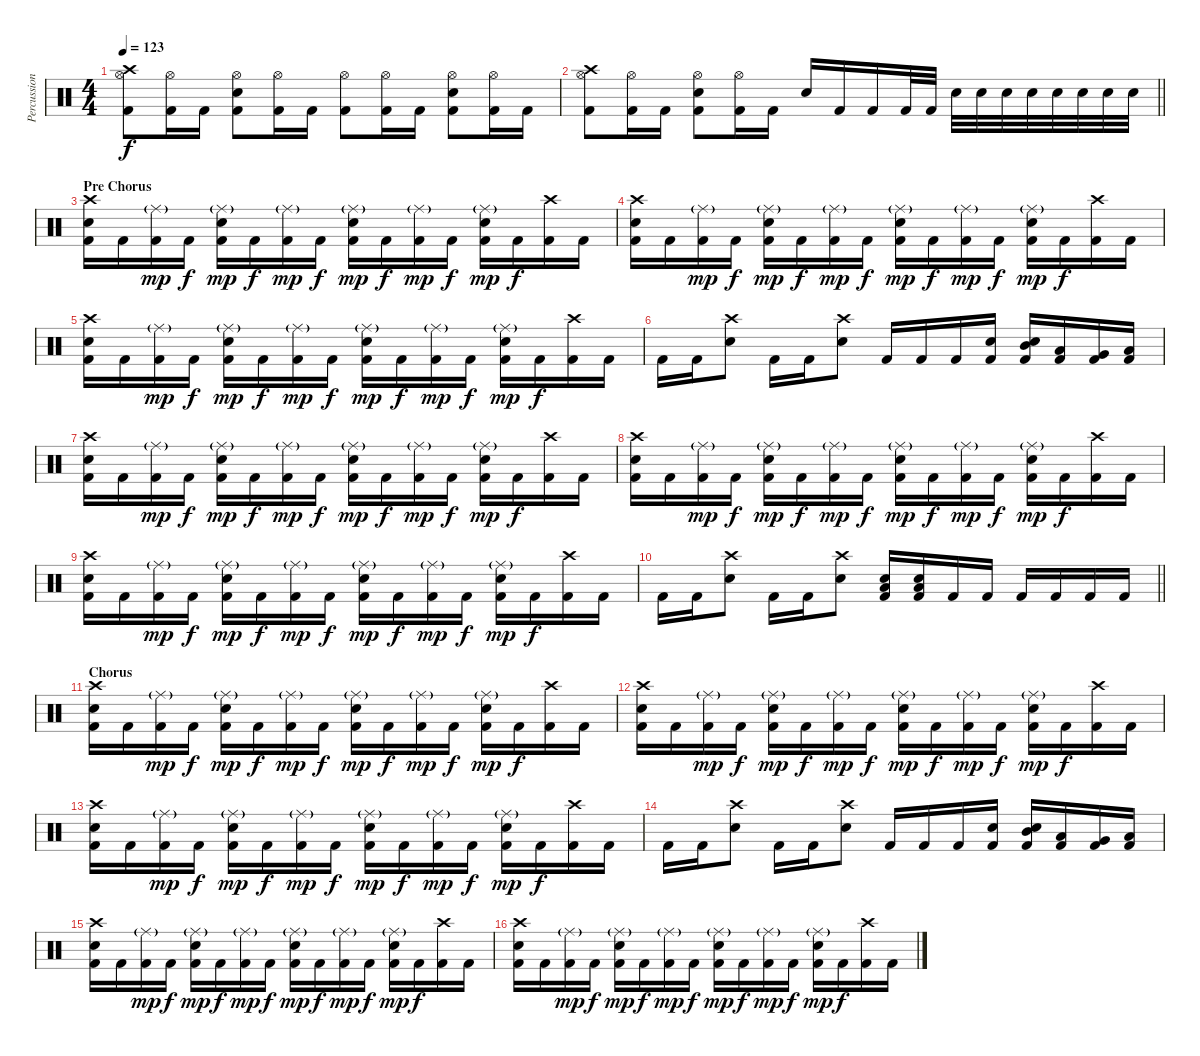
\track ("Percussion" "Percussion") {instrument percussion}
\staff {score}
\articulation defaults
\ts (4 4)
\tempo 123
\clef neutral
\ks c
("Hi-Hat (open)" "Kick (hit) 2" "Crash high (hit)").8{dy f} ("Hi-Hat (open)" "Kick (hit) 2").16 "Kick (hit) 2".16 ("Hi-Hat (open)" "Snare (hit) 2" "Kick (hit) 2").8 ("Hi-Hat (open)" "Kick (hit) 2").16 "Kick (hit) 2".16 ("Hi-Hat (open)" "Kick (hit) 2").8 ("Hi-Hat (open)" "Kick (hit) 2").16 "Kick (hit) 2".16 ("Hi-Hat (open)" "Snare (hit) 2" "Kick (hit) 2").8 ("Hi-Hat (open)" "Kick (hit) 2").16 "Kick (hit) 2".16 |
\barLineRight lightlight
("Hi-Hat (open)" "Kick (hit) 2" "Crash high (hit)").8 ("Hi-Hat (open)" "Kick (hit) 2").16 "Kick (hit) 2".16 ("Hi-Hat (open)" "Snare (hit) 2" "Kick (hit) 2").8 ("Hi-Hat (open)" "Kick (hit) 2").16 "Kick (hit) 2".16 "Snare (hit) 2".16 "Kick (hit) 2".16 "Kick (hit) 2".16 "Kick (hit) 2".32 "Kick (hit) 2".32 "Snare (hit) 2".32 "Snare (hit) 2".32 "Snare (hit) 2".32 "Snare (hit) 2".32 "Snare (hit) 2".32 "Snare (hit) 2".32 "Snare (hit) 2".32 "Snare (hit) 2".32 |
\section ("" "Pre Chorus")
("Snare (hit) 2" "Kick (hit) 2" "Crash high (hit)").16 "Kick (hit) 2".16 ("Ride (middle)"{g} "Kick (hit) 2").16{dy mp} "Kick (hit) 2".16{dy f} ("Ride (middle)"{g} "Snare (hit) 2" "Kick (hit) 2").16{dy mp} "Kick (hit) 2".16{dy f} ("Ride (middle)"{g} "Kick (hit) 2").16{dy mp} "Kick (hit) 2".16{dy f} ("Ride (middle)"{g} "Snare (hit) 2" "Kick (hit) 2").16{dy mp} "Kick (hit) 2".16{dy f} ("Ride (middle)"{g} "Kick (hit) 2").16{dy mp} "Kick (hit) 2".16{dy f} ("Ride (middle)"{g} "Snare (hit) 2" "Kick (hit) 2").16{dy mp} "Kick (hit) 2".16{dy f} ("Kick (hit) 2" "Crash high (hit)").16 "Kick (hit) 2".16 |
("Snare (hit) 2" "Kick (hit) 2" "Crash high (hit)").16 "Kick (hit) 2".16 ("Ride (middle)"{g} "Kick (hit) 2").16{dy mp} "Kick (hit) 2".16{dy f} ("Ride (middle)"{g} "Snare (hit) 2" "Kick (hit) 2").16{dy mp} "Kick (hit) 2".16{dy f} ("Ride (middle)"{g} "Kick (hit) 2").16{dy mp} "Kick (hit) 2".16{dy f} ("Ride (middle)"{g} "Snare (hit) 2" "Kick (hit) 2").16{dy mp} "Kick (hit) 2".16{dy f} ("Ride (middle)"{g} "Kick (hit) 2").16{dy mp} "Kick (hit) 2".16{dy f} ("Ride (middle)"{g} "Snare (hit) 2" "Kick (hit) 2").16{dy mp} "Kick (hit) 2".16{dy f} ("Kick (hit) 2" "Crash high (hit)").16 "Kick (hit) 2".16 |
("Snare (hit) 2" "Kick (hit) 2" "Crash high (hit)").16 "Kick (hit) 2".16 ("Ride (middle)"{g} "Kick (hit) 2").16{dy mp} "Kick (hit) 2".16{dy f} ("Ride (middle)"{g} "Snare (hit) 2" "Kick (hit) 2").16{dy mp} "Kick (hit) 2".16{dy f} ("Ride (middle)"{g} "Kick (hit) 2").16{dy mp} "Kick (hit) 2".16{dy f} ("Ride (middle)"{g} "Snare (hit) 2" "Kick (hit) 2").16{dy mp} "Kick (hit) 2".16{dy f} ("Ride (middle)"{g} "Kick (hit) 2").16{dy mp} "Kick (hit) 2".16{dy f} ("Ride (middle)"{g} "Snare (hit) 2" "Kick (hit) 2").16{dy mp} "Kick (hit) 2".16{dy f} ("Kick (hit) 2" "Crash high (hit)").16 "Kick (hit) 2".16 |
"Kick (hit) 2".16 "Kick (hit) 2".16 ("Snare (hit) 2" "Crash high (hit)").8 "Kick (hit) 2".16 "Kick (hit) 2".16 ("Snare (hit) 2" "Crash high (hit)").8 "Kick (hit) 2".16 "Kick (hit) 2".16 "Kick (hit) 2".16 ("Snare (hit) 2" "Kick (hit) 2").16 ("Mid Tom (hit)" "Snare (hit) 2" "Kick (hit) 2").16 ("Low Tom (hit)" "Kick (hit) 2").16 ("Very Low Tom (hit)" "Kick (hit) 2").16 ("Low Floor Tom (hit)" "Kick (hit) 2").16 |
("Snare (hit) 2" "Kick (hit) 2" "Crash high (hit)").16 "Kick (hit) 2".16 ("Ride (middle)"{g} "Kick (hit) 2").16{dy mp} "Kick (hit) 2".16{dy f} ("Ride (middle)"{g} "Snare (hit) 2" "Kick (hit) 2").16{dy mp} "Kick (hit) 2".16{dy f} ("Ride (middle)"{g} "Kick (hit) 2").16{dy mp} "Kick (hit) 2".16{dy f} ("Ride (middle)"{g} "Snare (hit) 2" "Kick (hit) 2").16{dy mp} "Kick (hit) 2".16{dy f} ("Ride (middle)"{g} "Kick (hit) 2").16{dy mp} "Kick (hit) 2".16{dy f} ("Ride (middle)"{g} "Snare (hit) 2" "Kick (hit) 2").16{dy mp} "Kick (hit) 2".16{dy f} ("Kick (hit) 2" "Crash high (hit)").16 "Kick (hit) 2".16 |
("Snare (hit) 2" "Kick (hit) 2" "Crash high (hit)").16 "Kick (hit) 2".16 ("Ride (middle)"{g} "Kick (hit) 2").16{dy mp} "Kick (hit) 2".16{dy f} ("Ride (middle)"{g} "Snare (hit) 2" "Kick (hit) 2").16{dy mp} "Kick (hit) 2".16{dy f} ("Ride (middle)"{g} "Kick (hit) 2").16{dy mp} "Kick (hit) 2".16{dy f} ("Ride (middle)"{g} "Snare (hit) 2" "Kick (hit) 2").16{dy mp} "Kick (hit) 2".16{dy f} ("Ride (middle)"{g} "Kick (hit) 2").16{dy mp} "Kick (hit) 2".16{dy f} ("Ride (middle)"{g} "Snare (hit) 2" "Kick (hit) 2").16{dy mp} "Kick (hit) 2".16{dy f} ("Kick (hit) 2" "Crash high (hit)").16 "Kick (hit) 2".16 |
("Snare (hit) 2" "Kick (hit) 2" "Crash high (hit)").16 "Kick (hit) 2".16 ("Ride (middle)"{g} "Kick (hit) 2").16{dy mp} "Kick (hit) 2".16{dy f} ("Ride (middle)"{g} "Snare (hit) 2" "Kick (hit) 2").16{dy mp} "Kick (hit) 2".16{dy f} ("Ride (middle)"{g} "Kick (hit) 2").16{dy mp} "Kick (hit) 2".16{dy f} ("Ride (middle)"{g} "Snare (hit) 2" "Kick (hit) 2").16{dy mp} "Kick (hit) 2".16{dy f} ("Ride (middle)"{g} "Kick (hit) 2").16{dy mp} "Kick (hit) 2".16{dy f} ("Ride (middle)"{g} "Snare (hit) 2" "Kick (hit) 2").16{dy mp} "Kick (hit) 2".16{dy f} ("Kick (hit) 2" "Crash high (hit)").16 "Kick (hit) 2".16 |
\barLineRight lightlight "Kick (hit) 2".16 "Kick (hit) 2".16
("Snare (hit) 2" "Crash high (hit)").8 "Kick (hit) 2".16 "Kick (hit) 2".16 ("Snare (hit) 2" "Crash high (hit)").8 ("Low Floor Tom (hit)" "Snare (hit) 2" "Kick (hit) 2").16 ("Low Floor Tom (hit)" "Snare (hit) 2" "Kick (hit) 2").16 "Kick (hit) 2".16 "Kick (hit) 2".16 "Kick (hit) 2".16 "Kick (hit) 2".16 "Kick (hit) 2".16 "Kick (hit) 2".16 |
\section ("" "Chorus")
("Snare (hit) 2" "Kick (hit) 2" "Crash high (hit)").16 "Kick (hit) 2".16 ("Ride (middle)"{g} "Kick (hit) 2").16{dy mp} "Kick (hit) 2".16{dy f} ("Ride (middle)"{g} "Snare (hit) 2" "Kick (hit) 2").16{dy mp} "Kick (hit) 2".16{dy f} ("Ride (middle)"{g} "Kick (hit) 2").16{dy mp} "Kick (hit) 2".16{dy f} ("Ride (middle)"{g} "Snare (hit) 2" "Kick (hit) 2").16{dy mp} "Kick (hit) 2".16{dy f} ("Ride (middle)"{g} "Kick (hit) 2").16{dy mp} "Kick (hit) 2".16{dy f} ("Ride (middle)"{g} "Snare (hit) 2" "Kick (hit) 2").16{dy mp} "Kick (hit) 2".16{dy f} ("Kick (hit) 2" "Crash high (hit)").16 "Kick (hit) 2".16 |
("Snare (hit) 2" "Kick (hit) 2" "Crash high (hit)").16 "Kick (hit) 2".16 ("Ride (middle)"{g} "Kick (hit) 2").16{dy mp} "Kick (hit) 2".16{dy f} ("Ride (middle)"{g} "Snare (hit) 2" "Kick (hit) 2").16{dy mp} "Kick (hit) 2".16{dy f} ("Ride (middle)"{g} "Kick (hit) 2").16{dy mp} "Kick (hit) 2".16{dy f} ("Ride (middle)"{g} "Snare (hit) 2" "Kick (hit) 2").16{dy mp} "Kick (hit) 2".16{dy f} ("Ride (middle)"{g} "Kick (hit) 2").16{dy mp} "Kick (hit) 2".16{dy f} ("Ride (middle)"{g} "Snare (hit) 2" "Kick (hit) 2").16{dy mp} "Kick (hit) 2".16{dy f} ("Kick (hit) 2" "Crash high (hit)").16 "Kick (hit) 2".16 |
("Snare (hit) 2" "Kick (hit) 2" "Crash high (hit)").16 "Kick (hit) 2".16 ("Ride (middle)"{g} "Kick (hit) 2").16{dy mp} "Kick (hit) 2".16{dy f} ("Ride (middle)"{g} "Snare (hit) 2" "Kick (hit) 2").16{dy mp} "Kick (hit) 2".16{dy f} ("Ride (middle)"{g} "Kick (hit) 2").16{dy mp} "Kick (hit) 2".16{dy f} ("Ride (middle)"{g} "Snare (hit) 2" "Kick (hit) 2").16{dy mp} "Kick (hit) 2".16{dy f} ("Ride (middle)"{g} "Kick (hit) 2").16{dy mp} "Kick (hit) 2".16{dy f} ("Ride (middle)"{g} "Snare (hit) 2" "Kick (hit) 2").16{dy mp} "Kick (hit) 2".16{dy f} ("Kick (hit) 2" "Crash high (hit)").16 "Kick (hit) 2".16 |
"Kick (hit) 2".16 "Kick (hit) 2".16 ("Snare (hit) 2" "Crash high (hit)").8 "Kick (hit) 2".16 "Kick (hit) 2".16 ("Snare (hit) 2" "Crash high (hit)").8 "Kick (hit) 2".16 "Kick (hit) 2".16 "Kick (hit) 2".16 ("Snare (hit) 2" "Kick (hit) 2").16 ("Mid Tom (hit)" "Snare (hit) 2" "Kick (hit) 2").16 ("Low Tom (hit)" "Kick (hit) 2").16 ("Very Low Tom (hit)" "Kick (hit) 2").16 ("Low Floor Tom (hit)" "Kick (hit) 2").16 |
("Snare (hit) 2" "Kick (hit) 2" "Crash high (hit)").16 "Kick (hit) 2".16 ("Ride (middle)"{g} "Kick (hit) 2").16{dy mp} "Kick (hit) 2".16{dy f} ("Ride (middle)"{g} "Snare (hit) 2" "Kick (hit) 2").16{dy mp} "Kick (hit) 2".16{dy f} ("Ride (middle)"{g} "Kick (hit) 2").16{dy mp} "Kick (hit) 2".16{dy f} ("Ride (middle)"{g} "Snare (hit) 2" "Kick (hit) 2").16{dy mp} "Kick (hit) 2".16{dy f} ("Ride (middle)"{g} "Kick (hit) 2").16{dy mp} "Kick (hit) 2".16{dy f} ("Ride (middle)"{g} "Snare (hit) 2" "Kick (hit) 2").16{dy mp} "Kick (hit) 2".16{dy f} ("Kick (hit) 2" "Crash high (hit)").16 "Kick (hit) 2".16 |
("Snare (hit) 2" "Kick (hit) 2" "Crash high (hit)").16 "Kick (hit) 2".16 ("Ride (middle)"{g} "Kick (hit) 2").16{dy mp} "Kick (hit) 2".16{dy f} ("Ride (middle)"{g} "Snare (hit) 2" "Kick (hit) 2").16{dy mp} "Kick (hit) 2".16{dy f} ("Ride (middle)"{g} "Kick (hit) 2").16{dy mp} "Kick (hit) 2".16{dy f} ("Ride (middle)"{g} "Snare (hit) 2" "Kick (hit) 2").16{dy mp} "Kick (hit) 2".16{dy f} ("Ride (middle)"{g} "Kick (hit) 2").16{dy mp} "Kick (hit) 2".16{dy f} ("Ride (middle)"{g} "Snare (hit) 2" "Kick (hit) 2").16{dy mp} "Kick (hit) 2".16{dy f} ("Kick (hit) 2" "Crash high (hit)").16 "Kick (hit) 2".16
